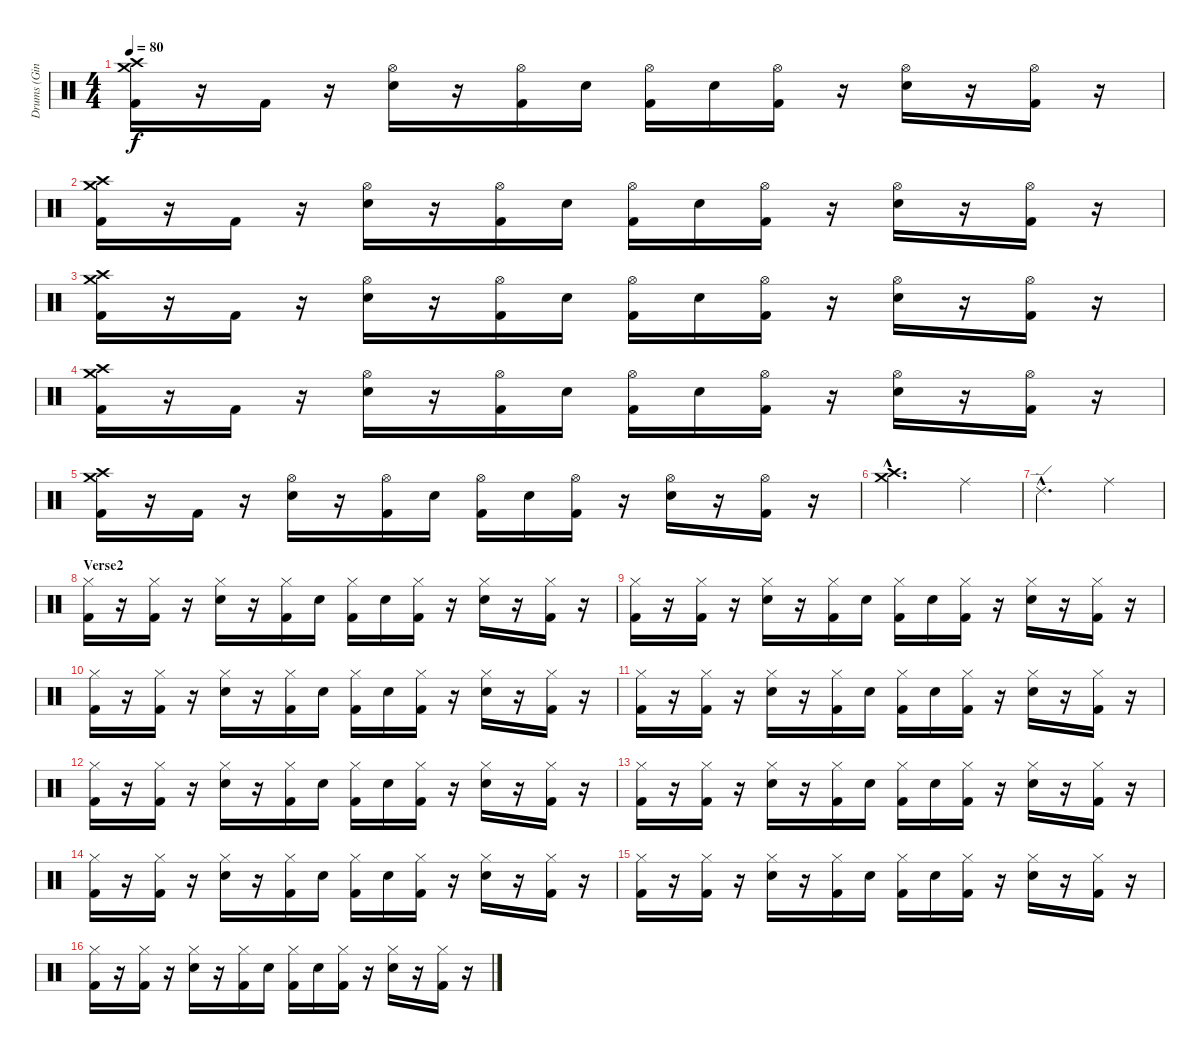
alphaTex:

\track ("Drums (Ginger Fish)" "Drums (Gin") {instrument percussion}
\staff {score}
\articulation defaults
\ts (4 4)
\tempo 80
\clef neutral
\ks c
("Crash high (hit)" "Crash medium (hit)" "Kick (hit) 2").16{dy f} r.16 "Kick (hit) 2".16 r.16 ("Hi-Hat (open)" "Electric Snare (hit)").16 r.16 ("Hi-Hat (open)" "Kick (hit) 2").16 "Electric Snare (hit)".16 ("Hi-Hat (open)" "Kick (hit) 2").16 "Electric Snare (hit)".16 ("Hi-Hat (open)" "Kick (hit) 2").16 r.16 ("Hi-Hat (open)" "Electric Snare (hit)").16 r.16 ("Hi-Hat (open)" "Kick (hit) 2").16 r.16 |
("Crash high (hit)" "Crash medium (hit)" "Kick (hit) 2").16 r.16 "Kick (hit) 2".16 r.16 ("Hi-Hat (open)" "Electric Snare (hit)").16 r.16 ("Hi-Hat (open)" "Kick (hit) 2").16 "Electric Snare (hit)".16 ("Hi-Hat (open)" "Kick (hit) 2").16 "Electric Snare (hit)".16 ("Hi-Hat (open)" "Kick (hit) 2").16 r.16 ("Hi-Hat (open)" "Electric Snare (hit)").16 r.16 ("Hi-Hat (open)" "Kick (hit) 2").16 r.16 |
("Crash high (hit)" "Crash medium (hit)" "Kick (hit) 2").16 r.16 "Kick (hit) 2".16 r.16 ("Hi-Hat (open)" "Electric Snare (hit)").16 r.16 ("Hi-Hat (open)" "Kick (hit) 2").16 "Electric Snare (hit)".16 ("Hi-Hat (open)" "Kick (hit) 2").16 "Electric Snare (hit)".16 ("Hi-Hat (open)" "Kick (hit) 2").16 r.16 ("Hi-Hat (open)" "Electric Snare (hit)").16 r.16 ("Hi-Hat (open)" "Kick (hit) 2").16 r.16 |
("Crash high (hit)" "Crash medium (hit)" "Kick (hit) 2").16 r.16 "Kick (hit) 2".16 r.16 ("Hi-Hat (open)" "Electric Snare (hit)").16 r.16 ("Hi-Hat (open)" "Kick (hit) 2").16 "Electric Snare (hit)".16 ("Hi-Hat (open)" "Kick (hit) 2").16 "Electric Snare (hit)".16 ("Hi-Hat (open)" "Kick (hit) 2").16 r.16 ("Hi-Hat (open)" "Electric Snare (hit)").16 r.16 ("Hi-Hat (open)" "Kick (hit) 2").16 r.16 |
("Crash high (hit)" "Crash medium (hit)" "Kick (hit) 2").16 r.16 "Kick (hit) 2".16 r.16 ("Hi-Hat (open)" "Electric Snare (hit)").16 r.16 ("Hi-Hat (open)" "Kick (hit) 2").16 "Electric Snare (hit)".16 ("Hi-Hat (open)" "Kick (hit) 2").16 "Electric Snare (hit)".16 ("Hi-Hat (open)" "Kick (hit) 2").16 r.16 ("Hi-Hat (open)" "Electric Snare (hit)").16 r.16 ("Hi-Hat (open)" "Kick (hit) 2").16 r.16 |
("Crash high (hit)"{hac} "Crash medium (hit)"{hac}).2{d} "Ride (middle)".4 |
"Ride (edge) 2"{hac}.2{d} "Ride (middle)".4 |
\section ("" "Verse2")
("Hi-Hat (closed)" "Kick (hit) 2").16 r.16 ("Hi-Hat (closed)" "Kick (hit) 2").16 r.16 ("Hi-Hat (closed)" "Electric Snare (hit)").16 r.16 ("Hi-Hat (closed)" "Kick (hit) 2").16 "Electric Snare (hit)".16 ("Hi-Hat (closed)" "Kick (hit) 2").16 "Electric Snare (hit)".16 ("Hi-Hat (closed)" "Kick (hit) 2").16 r.16 ("Hi-Hat (closed)" "Electric Snare (hit)").16 r.16 ("Hi-Hat (closed)" "Kick (hit) 2").16 r.16 |
("Hi-Hat (closed)" "Kick (hit) 2").16 r.16 ("Hi-Hat (closed)" "Kick (hit) 2").16 r.16 ("Hi-Hat (closed)" "Electric Snare (hit)").16 r.16 ("Hi-Hat (closed)" "Kick (hit) 2").16 "Electric Snare (hit)".16 ("Hi-Hat (closed)" "Kick (hit) 2").16 "Electric Snare (hit)".16 ("Hi-Hat (closed)" "Kick (hit) 2").16 r.16 ("Hi-Hat (closed)" "Electric Snare (hit)").16 r.16 ("Hi-Hat (closed)" "Kick (hit) 2").16 r.16 |
("Hi-Hat (closed)" "Kick (hit) 2").16 r.16 ("Hi-Hat (closed)" "Kick (hit) 2").16 r.16 ("Hi-Hat (closed)" "Electric Snare (hit)").16 r.16 ("Hi-Hat (closed)" "Kick (hit) 2").16 "Electric Snare (hit)".16 ("Hi-Hat (closed)" "Kick (hit) 2").16 "Electric Snare (hit)".16 ("Hi-Hat (closed)" "Kick (hit) 2").16 r.16 ("Hi-Hat (closed)" "Electric Snare (hit)").16 r.16 ("Hi-Hat (closed)" "Kick (hit) 2").16 r.16 |
("Hi-Hat (closed)" "Kick (hit) 2").16 r.16 ("Hi-Hat (closed)" "Kick (hit) 2").16 r.16 ("Hi-Hat (closed)" "Electric Snare (hit)").16 r.16 ("Hi-Hat (closed)" "Kick (hit) 2").16 "Electric Snare (hit)".16 ("Hi-Hat (closed)" "Kick (hit) 2").16 "Electric Snare (hit)".16 ("Hi-Hat (closed)" "Kick (hit) 2").16 r.16 ("Hi-Hat (closed)" "Electric Snare (hit)").16 r.16 ("Hi-Hat (closed)" "Kick (hit) 2").16 r.16 |
("Hi-Hat (closed)" "Kick (hit) 2").16 r.16 ("Hi-Hat (closed)" "Kick (hit) 2").16 r.16 ("Hi-Hat (closed)" "Electric Snare (hit)").16 r.16 ("Hi-Hat (closed)" "Kick (hit) 2").16 "Electric Snare (hit)".16 ("Hi-Hat (closed)" "Kick (hit) 2").16 "Electric Snare (hit)".16 ("Hi-Hat (closed)" "Kick (hit) 2").16 r.16 ("Hi-Hat (closed)" "Electric Snare (hit)").16 r.16 ("Hi-Hat (closed)" "Kick (hit) 2").16 r.16 |
("Hi-Hat (closed)" "Kick (hit) 2").16 r.16 ("Hi-Hat (closed)" "Kick (hit) 2").16 r.16 ("Hi-Hat (closed)" "Electric Snare (hit)").16 r.16 ("Hi-Hat (closed)" "Kick (hit) 2").16 "Electric Snare (hit)".16 ("Hi-Hat (closed)" "Kick (hit) 2").16 "Electric Snare (hit)".16 ("Hi-Hat (closed)" "Kick (hit) 2").16 r.16 ("Hi-Hat (closed)" "Electric Snare (hit)").16 r.16 ("Hi-Hat (closed)" "Kick (hit) 2").16 r.16 |
("Hi-Hat (closed)" "Kick (hit) 2").16 r.16 ("Hi-Hat (closed)" "Kick (hit) 2").16 r.16 ("Hi-Hat (closed)" "Electric Snare (hit)").16 r.16 ("Hi-Hat (closed)" "Kick (hit) 2").16 "Electric Snare (hit)".16 ("Hi-Hat (closed)" "Kick (hit) 2").16 "Electric Snare (hit)".16 ("Hi-Hat (closed)" "Kick (hit) 2").16 r.16 ("Hi-Hat (closed)" "Electric Snare (hit)").16 r.16 ("Hi-Hat (closed)" "Kick (hit) 2").16 r.16 |
("Hi-Hat (closed)" "Kick (hit) 2").16 r.16 ("Hi-Hat (closed)" "Kick (hit) 2").16 r.16 ("Hi-Hat (closed)" "Electric Snare (hit)").16 r.16 ("Hi-Hat (closed)" "Kick (hit) 2").16 "Electric Snare (hit)".16 ("Hi-Hat (closed)" "Kick (hit) 2").16 "Electric Snare (hit)".16 ("Hi-Hat (closed)" "Kick (hit) 2").16 r.16 ("Hi-Hat (closed)" "Electric Snare (hit)").16 r.16 ("Hi-Hat (closed)" "Kick (hit) 2").16 r.16 |
("Hi-Hat (closed)" "Kick (hit) 2").16 r.16 ("Hi-Hat (closed)" "Kick (hit) 2").16 r.16 ("Hi-Hat (closed)" "Electric Snare (hit)").16 r.16 ("Hi-Hat (closed)" "Kick (hit) 2").16 "Electric Snare (hit)".16 ("Hi-Hat (closed)" "Kick (hit) 2").16 "Electric Snare (hit)".16 ("Hi-Hat (closed)" "Kick (hit) 2").16 r.16 ("Hi-Hat (closed)" "Electric Snare (hit)").16 r.16 ("Hi-Hat (closed)" "Kick (hit) 2").16 r.16
